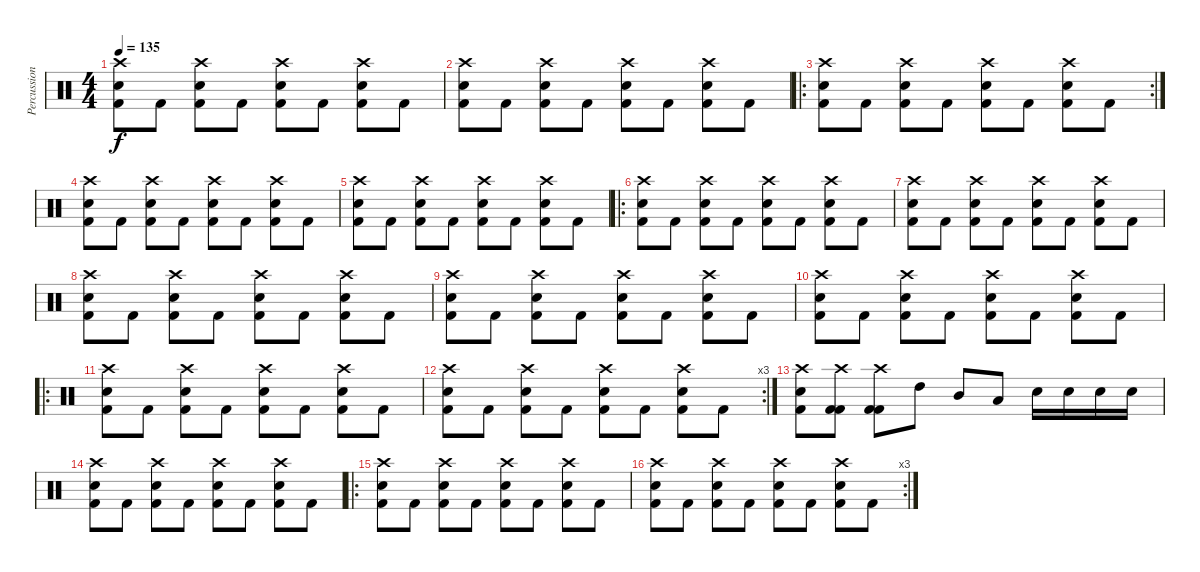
\track ("Percussions" "Percussion") {instrument percussion}
\staff {score}
\articulation defaults
\ts (4 4)
\tempo 135
\clef neutral
\ks c
("Crash high (hit)" "Kick (hit) 2" "Electric Snare (hit)").8{dy f} "Kick (hit) 2".8 ("Crash high (hit)" "Electric Snare (hit)" "Kick (hit) 2").8 "Kick (hit) 2".8 ("Crash high (hit)" "Kick (hit) 2" "Electric Snare (hit)").8 "Kick (hit) 2".8 ("Crash high (hit)" "Electric Snare (hit)" "Kick (hit) 2").8 "Kick (hit) 2".8 |
("Crash high (hit)" "Kick (hit) 2" "Electric Snare (hit)").8 "Kick (hit) 2".8 ("Crash high (hit)" "Electric Snare (hit)" "Kick (hit) 2").8 "Kick (hit) 2".8 ("Crash high (hit)" "Kick (hit) 2" "Electric Snare (hit)").8 "Kick (hit) 2".8 ("Crash high (hit)" "Electric Snare (hit)" "Kick (hit) 2").8 "Kick (hit) 2".8 |
\ro
\rc 2
("Crash high (hit)" "Kick (hit) 2" "Electric Snare (hit)").8 "Kick (hit) 2".8 ("Crash high (hit)" "Electric Snare (hit)" "Kick (hit) 2").8 "Kick (hit) 2".8 ("Crash high (hit)" "Kick (hit) 2" "Electric Snare (hit)").8 "Kick (hit) 2".8 ("Crash high (hit)" "Electric Snare (hit)" "Kick (hit) 2").8 "Kick (hit) 2".8 |
("Crash high (hit)" "Kick (hit) 2" "Electric Snare (hit)").8 "Kick (hit) 2".8 ("Crash high (hit)" "Electric Snare (hit)" "Kick (hit) 2").8 "Kick (hit) 2".8 ("Crash high (hit)" "Kick (hit) 2" "Electric Snare (hit)").8 "Kick (hit) 2".8 ("Crash high (hit)" "Electric Snare (hit)" "Kick (hit) 2").8 "Kick (hit) 2".8 |
("Crash high (hit)" "Kick (hit) 2" "Electric Snare (hit)").8 "Kick (hit) 2".8 ("Crash high (hit)" "Electric Snare (hit)" "Kick (hit) 2").8 "Kick (hit) 2".8 ("Crash high (hit)" "Kick (hit) 2" "Electric Snare (hit)").8 "Kick (hit) 2".8 ("Crash high (hit)" "Electric Snare (hit)" "Kick (hit) 2").8 "Kick (hit) 2".8 |
\ro
("Crash high (hit)" "Kick (hit) 2" "Electric Snare (hit)").8 "Kick (hit) 2".8 ("Crash high (hit)" "Electric Snare (hit)" "Kick (hit) 2").8 "Kick (hit) 2".8 ("Crash high (hit)" "Kick (hit) 2" "Electric Snare (hit)").8 "Kick (hit) 2".8 ("Crash high (hit)" "Electric Snare (hit)" "Kick (hit) 2").8 "Kick (hit) 2".8 |
("Crash high (hit)" "Kick (hit) 2" "Electric Snare (hit)").8 "Kick (hit) 2".8 ("Crash high (hit)" "Electric Snare (hit)" "Kick (hit) 2").8 "Kick (hit) 2".8 ("Crash high (hit)" "Kick (hit) 2" "Electric Snare (hit)").8 "Kick (hit) 2".8 ("Crash high (hit)" "Electric Snare (hit)" "Kick (hit) 2").8 "Kick (hit) 2".8 |
("Crash high (hit)" "Kick (hit) 2" "Electric Snare (hit)").8 "Kick (hit) 2".8 ("Crash high (hit)" "Electric Snare (hit)" "Kick (hit) 2").8 "Kick (hit) 2".8 ("Crash high (hit)" "Kick (hit) 2" "Electric Snare (hit)").8 "Kick (hit) 2".8 ("Crash high (hit)" "Electric Snare (hit)" "Kick (hit) 2").8 "Kick (hit) 2".8 |
("Crash high (hit)" "Kick (hit) 2" "Electric Snare (hit)").8 "Kick (hit) 2".8 ("Crash high (hit)" "Electric Snare (hit)" "Kick (hit) 2").8 "Kick (hit) 2".8 ("Crash high (hit)" "Kick (hit) 2" "Electric Snare (hit)").8 "Kick (hit) 2".8 ("Crash high (hit)" "Electric Snare (hit)" "Kick (hit) 2").8 "Kick (hit) 2".8 |
("Crash high (hit)" "Kick (hit) 2" "Electric Snare (hit)").8 "Kick (hit) 2".8 ("Crash high (hit)" "Electric Snare (hit)" "Kick (hit) 2").8 "Kick (hit) 2".8 ("Crash high (hit)" "Kick (hit) 2" "Electric Snare (hit)").8 "Kick (hit) 2".8 ("Crash high (hit)" "Electric Snare (hit)" "Kick (hit) 2").8 "Kick (hit) 2".8 |
\ro
("Crash high (hit)" "Kick (hit) 2" "Electric Snare (hit)").8 "Kick (hit) 2".8 ("Crash high (hit)" "Electric Snare (hit)" "Kick (hit) 2").8 "Kick (hit) 2".8 ("Crash high (hit)" "Kick (hit) 2" "Electric Snare (hit)").8 "Kick (hit) 2".8 ("Crash high (hit)" "Electric Snare (hit)" "Kick (hit) 2").8 "Kick (hit) 2".8 |
\rc 3
("Crash high (hit)" "Kick (hit) 2" "Electric Snare (hit)").8 "Kick (hit) 2".8 ("Crash high (hit)" "Electric Snare (hit)" "Kick (hit) 2").8 "Kick (hit) 2".8 ("Crash high (hit)" "Kick (hit) 2" "Electric Snare (hit)").8 "Kick (hit) 2".8 ("Crash high (hit)" "Electric Snare (hit)" "Kick (hit) 2").8 "Kick (hit) 2".8 |
("Kick (hit) 2" "Crash high (hit)" "Electric Snare (hit)").8 ("Kick (hit) 2" "Crash high (hit)" "Kick (hit) 2").8 ("Kick (hit) 2" "Crash high (hit)" "Kick (hit) 2").8 "High Tom (hit)".8 "Mid Tom (hit)".8 "Low Tom (hit)".8 "Electric Snare (hit)".16 "Electric Snare (hit)".16 "Electric Snare (hit)".16 "Electric Snare (hit)".16 |
("Crash high (hit)" "Kick (hit) 2" "Electric Snare (hit)").8 "Kick (hit) 2".8 ("Crash high (hit)" "Electric Snare (hit)" "Kick (hit) 2").8 "Kick (hit) 2".8 ("Crash high (hit)" "Kick (hit) 2" "Electric Snare (hit)").8 "Kick (hit) 2".8 ("Crash high (hit)" "Electric Snare (hit)" "Kick (hit) 2").8 "Kick (hit) 2".8 |
\ro
("Crash high (hit)" "Kick (hit) 2" "Electric Snare (hit)").8 "Kick (hit) 2".8 ("Crash high (hit)" "Electric Snare (hit)" "Kick (hit) 2").8 "Kick (hit) 2".8 ("Crash high (hit)" "Kick (hit) 2" "Electric Snare (hit)").8 "Kick (hit) 2".8 ("Crash high (hit)" "Electric Snare (hit)" "Kick (hit) 2").8 "Kick (hit) 2".8 |
\rc 3
("Crash high (hit)" "Kick (hit) 2" "Electric Snare (hit)").8 "Kick (hit) 2".8 ("Crash high (hit)" "Electric Snare (hit)" "Kick (hit) 2").8 "Kick (hit) 2".8 ("Crash high (hit)" "Kick (hit) 2" "Electric Snare (hit)").8 "Kick (hit) 2".8 ("Crash high (hit)" "Electric Snare (hit)" "Kick (hit) 2").8 "Kick (hit) 2".8
